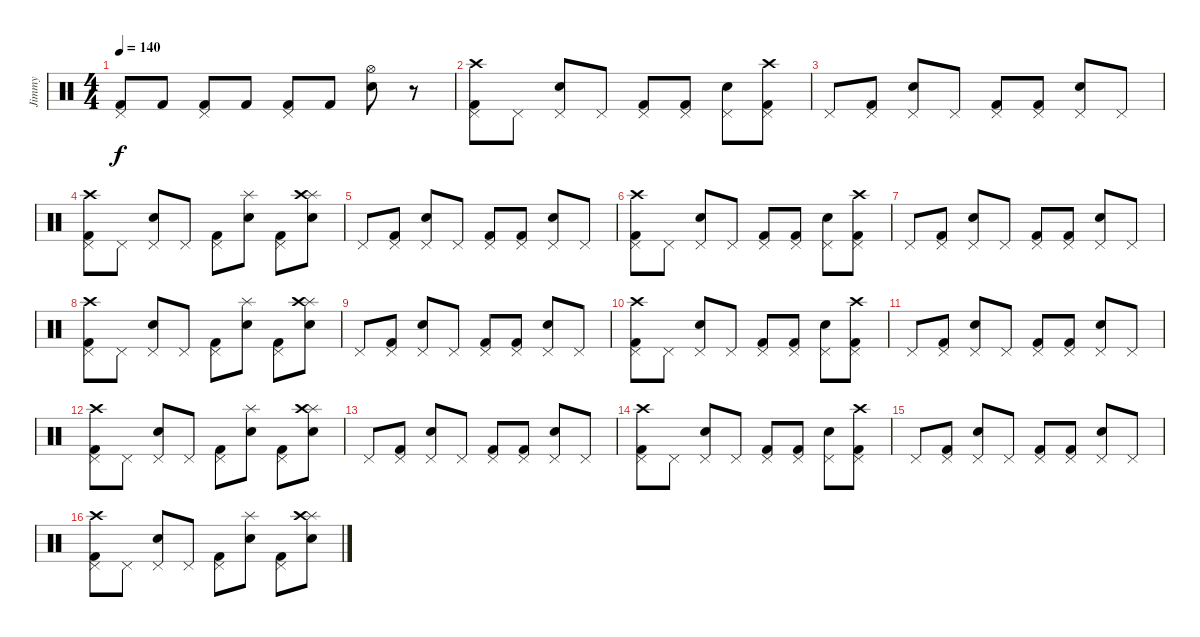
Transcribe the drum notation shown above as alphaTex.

\track ("Jimmy" "Jimmy") {instrument percussion}
\staff {score}
\articulation defaults
\ts (4 4)
\tempo 140
\clef neutral
\ks c
("Kick (hit) 2" "Pedal Hi-Hat (hit)").8{dy f} "Kick (hit) 2".8 ("Kick (hit) 2" "Pedal Hi-Hat (hit)").8 "Kick (hit) 2".8 ("Kick (hit) 2" "Pedal Hi-Hat (hit)").8 "Kick (hit) 2".8 ("Snare (hit) 2" "Hi-Hat (open)").8 r.8 |
("Kick (hit) 2" "Pedal Hi-Hat (hit)" "Crash high (hit)").8 "Pedal Hi-Hat (hit)".8 ("Snare (hit) 2" "Pedal Hi-Hat (hit)").8 "Pedal Hi-Hat (hit)".8 ("Kick (hit) 2" "Pedal Hi-Hat (hit)").8 ("Kick (hit) 2" "Pedal Hi-Hat (hit)").8 ("Snare (hit) 2" "Pedal Hi-Hat (hit)").8 ("Kick (hit) 2" "Pedal Hi-Hat (hit)" "Crash high (hit)").8 |
"Pedal Hi-Hat (hit)".8 ("Kick (hit) 2" "Pedal Hi-Hat (hit)").8 ("Snare (hit) 2" "Pedal Hi-Hat (hit)").8 "Pedal Hi-Hat (hit)".8 ("Kick (hit) 2" "Pedal Hi-Hat (hit)").8 ("Kick (hit) 2" "Pedal Hi-Hat (hit)").8 ("Snare (hit) 2" "Pedal Hi-Hat (hit)").8 "Pedal Hi-Hat (hit)".8 |
("Kick (hit) 2" "Pedal Hi-Hat (hit)" "Crash high (hit)").8 "Pedal Hi-Hat (hit)".8 ("Snare (hit) 2" "Pedal Hi-Hat (hit)").8 "Pedal Hi-Hat (hit)".8 ("Kick (hit) 2" "Pedal Hi-Hat (hit)").8 ("Snare (hit) 2" "Splash (hit)").8 ("Kick (hit) 2" "Pedal Hi-Hat (hit)").8 ("Snare (hit) 2" "Splash (hit)" "Crash high (hit)").8 |
"Pedal Hi-Hat (hit)".8 ("Kick (hit) 2" "Pedal Hi-Hat (hit)").8 ("Snare (hit) 2" "Pedal Hi-Hat (hit)").8 "Pedal Hi-Hat (hit)".8 ("Kick (hit) 2" "Pedal Hi-Hat (hit)").8 ("Kick (hit) 2" "Pedal Hi-Hat (hit)").8 ("Snare (hit) 2" "Pedal Hi-Hat (hit)").8 "Pedal Hi-Hat (hit)".8 |
("Kick (hit) 2" "Pedal Hi-Hat (hit)" "Crash high (hit)").8 "Pedal Hi-Hat (hit)".8 ("Snare (hit) 2" "Pedal Hi-Hat (hit)").8 "Pedal Hi-Hat (hit)".8 ("Kick (hit) 2" "Pedal Hi-Hat (hit)").8 ("Kick (hit) 2" "Pedal Hi-Hat (hit)").8 ("Snare (hit) 2" "Pedal Hi-Hat (hit)").8 ("Kick (hit) 2" "Pedal Hi-Hat (hit)" "Crash high (hit)").8 |
"Pedal Hi-Hat (hit)".8 ("Kick (hit) 2" "Pedal Hi-Hat (hit)").8 ("Snare (hit) 2" "Pedal Hi-Hat (hit)").8 "Pedal Hi-Hat (hit)".8 ("Kick (hit) 2" "Pedal Hi-Hat (hit)").8 ("Kick (hit) 2" "Pedal Hi-Hat (hit)").8 ("Snare (hit) 2" "Pedal Hi-Hat (hit)").8 "Pedal Hi-Hat (hit)".8 |
("Kick (hit) 2" "Pedal Hi-Hat (hit)" "Crash high (hit)").8 "Pedal Hi-Hat (hit)".8 ("Snare (hit) 2" "Pedal Hi-Hat (hit)").8 "Pedal Hi-Hat (hit)".8 ("Kick (hit) 2" "Pedal Hi-Hat (hit)").8 ("Snare (hit) 2" "Splash (hit)").8 ("Kick (hit) 2" "Pedal Hi-Hat (hit)").8 ("Snare (hit) 2" "Splash (hit)" "Crash high (hit)").8 |
"Pedal Hi-Hat (hit)".8 ("Kick (hit) 2" "Pedal Hi-Hat (hit)").8 ("Snare (hit) 2" "Pedal Hi-Hat (hit)").8 "Pedal Hi-Hat (hit)".8 ("Kick (hit) 2" "Pedal Hi-Hat (hit)").8 ("Kick (hit) 2" "Pedal Hi-Hat (hit)").8 ("Snare (hit) 2" "Pedal Hi-Hat (hit)").8 "Pedal Hi-Hat (hit)".8 |
("Kick (hit) 2" "Pedal Hi-Hat (hit)" "Crash high (hit)").8 "Pedal Hi-Hat (hit)".8 ("Snare (hit) 2" "Pedal Hi-Hat (hit)").8 "Pedal Hi-Hat (hit)".8 ("Kick (hit) 2" "Pedal Hi-Hat (hit)").8 ("Kick (hit) 2" "Pedal Hi-Hat (hit)").8 ("Snare (hit) 2" "Pedal Hi-Hat (hit)").8 ("Kick (hit) 2" "Pedal Hi-Hat (hit)" "Crash high (hit)").8 |
"Pedal Hi-Hat (hit)".8 ("Kick (hit) 2" "Pedal Hi-Hat (hit)").8 ("Snare (hit) 2" "Pedal Hi-Hat (hit)").8 "Pedal Hi-Hat (hit)".8 ("Kick (hit) 2" "Pedal Hi-Hat (hit)").8 ("Kick (hit) 2" "Pedal Hi-Hat (hit)").8 ("Snare (hit) 2" "Pedal Hi-Hat (hit)").8 "Pedal Hi-Hat (hit)".8 |
("Kick (hit) 2" "Pedal Hi-Hat (hit)" "Crash high (hit)").8 "Pedal Hi-Hat (hit)".8 ("Snare (hit) 2" "Pedal Hi-Hat (hit)").8 "Pedal Hi-Hat (hit)".8 ("Kick (hit) 2" "Pedal Hi-Hat (hit)").8 ("Snare (hit) 2" "Splash (hit)").8 ("Kick (hit) 2" "Pedal Hi-Hat (hit)").8 ("Snare (hit) 2" "Splash (hit)" "Crash high (hit)").8 |
"Pedal Hi-Hat (hit)".8 ("Kick (hit) 2" "Pedal Hi-Hat (hit)").8 ("Snare (hit) 2" "Pedal Hi-Hat (hit)").8 "Pedal Hi-Hat (hit)".8 ("Kick (hit) 2" "Pedal Hi-Hat (hit)").8 ("Kick (hit) 2" "Pedal Hi-Hat (hit)").8 ("Snare (hit) 2" "Pedal Hi-Hat (hit)").8 "Pedal Hi-Hat (hit)".8 |
("Kick (hit) 2" "Pedal Hi-Hat (hit)" "Crash high (hit)").8 "Pedal Hi-Hat (hit)".8 ("Snare (hit) 2" "Pedal Hi-Hat (hit)").8 "Pedal Hi-Hat (hit)".8 ("Kick (hit) 2" "Pedal Hi-Hat (hit)").8 ("Kick (hit) 2" "Pedal Hi-Hat (hit)").8 ("Snare (hit) 2" "Pedal Hi-Hat (hit)").8 ("Kick (hit) 2" "Pedal Hi-Hat (hit)" "Crash high (hit)").8 |
"Pedal Hi-Hat (hit)".8 ("Kick (hit) 2" "Pedal Hi-Hat (hit)").8 ("Snare (hit) 2" "Pedal Hi-Hat (hit)").8 "Pedal Hi-Hat (hit)".8 ("Kick (hit) 2" "Pedal Hi-Hat (hit)").8 ("Kick (hit) 2" "Pedal Hi-Hat (hit)").8 ("Snare (hit) 2" "Pedal Hi-Hat (hit)").8 "Pedal Hi-Hat (hit)".8 |
("Kick (hit) 2" "Pedal Hi-Hat (hit)" "Crash high (hit)").8 "Pedal Hi-Hat (hit)".8 ("Snare (hit) 2" "Pedal Hi-Hat (hit)").8 "Pedal Hi-Hat (hit)".8 ("Kick (hit) 2" "Pedal Hi-Hat (hit)").8 ("Snare (hit) 2" "Splash (hit)").8 ("Kick (hit) 2" "Pedal Hi-Hat (hit)").8 ("Snare (hit) 2" "Splash (hit)" "Crash high (hit)").8
